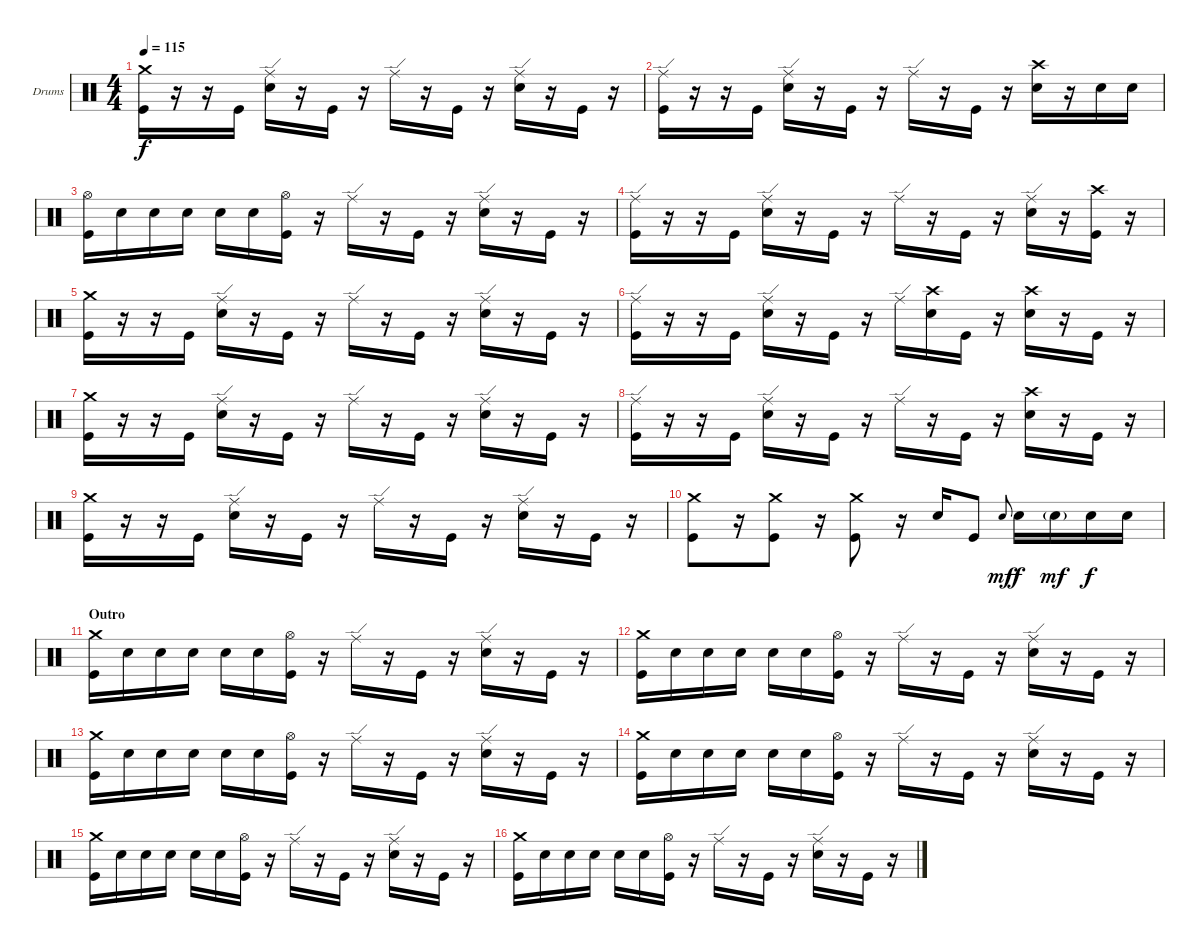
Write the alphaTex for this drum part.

\defaultSystemsLayout 4
\bracketExtendMode nobrackets
\firstSystemTrackNameOrientation horizontal
\otherSystemsTrackNameOrientation horizontal
\track ("Dave Krusen" "Drums") {instrument percussion}
\staff {score}
\articulation defaults
\ts (4 4)
\tempo 115
\clef neutral
\ks c
("Crash medium (hit)" "Kick (hit)").16{dy f} r.16 r.16 "Kick (hit)".16 ("Ride (edge)" "Snare (hit) 2").16 r.16 "Kick (hit)".16 r.16 "Ride (edge)".16 r.16 "Kick (hit)".16 r.16 ("Ride (edge)" "Snare (hit) 2").16 r.16 "Kick (hit)".16 r.16 |
("Ride (edge)" "Kick (hit)").16 r.16 r.16 "Kick (hit)".16 ("Ride (edge)" "Snare (hit) 2").16 r.16 "Kick (hit)".16 r.16 "Ride (edge)".16 r.16 "Kick (hit)".16 r.16 ("Crash high (hit)" "Snare (hit) 2").16 r.16 "Snare (hit) 2".16 "Snare (hit) 2".16 |
("Hi-Hat (open)" "Kick (hit)").16 "Snare (hit) 2".16 "Snare (hit) 2".16 "Snare (hit) 2".16 "Snare (hit) 2".16 "Snare (hit) 2".16 ("Hi-Hat (open)" "Kick (hit)").16 r.16 "Ride (edge)".16 r.16 "Kick (hit)".16 r.16 ("Ride (edge)" "Snare (hit) 2").16 r.16 "Kick (hit)".16 r.16 |
("Ride (edge)" "Kick (hit)").16 r.16 r.16 "Kick (hit)".16 ("Ride (edge)" "Snare (hit) 2").16 r.16 "Kick (hit)".16 r.16 "Ride (edge)".16 r.16 "Kick (hit)".16 r.16 ("Ride (edge)" "Snare (hit) 2").16 r.16 ("Crash high (hit)" "Kick (hit)").16 r.16 |
("Crash medium (hit)" "Kick (hit)").16 r.16 r.16 "Kick (hit)".16 ("Ride (edge)" "Snare (hit) 2").16 r.16 "Kick (hit)".16 r.16 "Ride (edge)".16 r.16 "Kick (hit)".16 r.16 ("Ride (edge)" "Snare (hit) 2").16 r.16 "Kick (hit)".16 r.16 |
("Ride (edge)" "Kick (hit)").16 r.16 r.16 "Kick (hit)".16 ("Ride (edge)" "Snare (hit) 2").16 r.16 "Kick (hit)".16 r.16 "Ride (edge)".16 ("Crash high (hit)" "Snare (hit) 2").16 "Kick (hit)".16 r.16 ("Crash high (hit)" "Snare (hit) 2").16 r.16 "Kick (hit)".16 r.16 |
("Crash medium (hit)" "Kick (hit)").16 r.16 r.16 "Kick (hit)".16 ("Ride (edge)" "Snare (hit) 2").16 r.16 "Kick (hit)".16 r.16 "Ride (edge)".16 r.16 "Kick (hit)".16 r.16 ("Ride (edge)" "Snare (hit) 2").16 r.16 "Kick (hit)".16 r.16 |
("Ride (edge)" "Kick (hit)").16 r.16 r.16 "Kick (hit)".16 ("Ride (edge)" "Snare (hit) 2").16 r.16 "Kick (hit)".16 r.16 "Ride (edge)".16 r.16 "Kick (hit)".16 r.16 ("Crash high (hit)" "Snare (hit) 2").16 r.16 "Kick (hit)".16 r.16 |
("Crash medium (hit)" "Kick (hit)").16 r.16 r.16 "Kick (hit)".16 ("Ride (edge)" "Snare (hit) 2").16 r.16 "Kick (hit)".16 r.16 "Ride (edge)".16 r.16 "Kick (hit)".16 r.16 ("Ride (edge)" "Snare (hit) 2").16 r.16 "Kick (hit)".16 r.16 |
("Crash medium (hit)" "Kick (hit)").8 r.16 ("Crash medium (hit)" "Kick (hit)").8 r.16 ("Crash medium (hit)" "Kick (hit)").8 r.16 "Snare (hit) 2".16 "Kick (hit)".8 "Snare (hit) 2".8{gr onbeat dy mf} "Snare (hit) 2".16{dy f} "Snare (hit) 2"{g}.16{dy mf} "Snare (hit) 2".16{dy f} "Snare (hit) 2".16 |
\section ("" "Outro")
("Crash medium (hit)" "Kick (hit)").16 "Snare (hit) 2".16 "Snare (hit) 2".16 "Snare (hit) 2".16 "Snare (hit) 2".16 "Snare (hit) 2".16 ("Hi-Hat (open)" "Kick (hit)").16 r.16 "Ride (edge)".16 r.16 "Kick (hit)".16 r.16 ("Ride (edge)" "Snare (hit) 2").16 r.16 "Kick (hit)".16 r.16 |
("Crash medium (hit)" "Kick (hit)").16 "Snare (hit) 2".16 "Snare (hit) 2".16 "Snare (hit) 2".16 "Snare (hit) 2".16 "Snare (hit) 2".16 ("Hi-Hat (open)" "Kick (hit)").16 r.16 "Ride (edge)".16 r.16 "Kick (hit)".16 r.16 ("Ride (edge)" "Snare (hit) 2").16 r.16 "Kick (hit)".16 r.16 |
("Crash medium (hit)" "Kick (hit)").16 "Snare (hit) 2".16 "Snare (hit) 2".16 "Snare (hit) 2".16 "Snare (hit) 2".16 "Snare (hit) 2".16 ("Hi-Hat (open)" "Kick (hit)").16 r.16 "Ride (edge)".16 r.16 "Kick (hit)".16 r.16 ("Ride (edge)" "Snare (hit) 2").16 r.16 "Kick (hit)".16 r.16 |
("Crash medium (hit)" "Kick (hit)").16 "Snare (hit) 2".16 "Snare (hit) 2".16 "Snare (hit) 2".16 "Snare (hit) 2".16 "Snare (hit) 2".16 ("Hi-Hat (open)" "Kick (hit)").16 r.16 "Ride (edge)".16 r.16 "Kick (hit)".16 r.16 ("Ride (edge)" "Snare (hit) 2").16 r.16 "Kick (hit)".16 r.16 |
("Crash medium (hit)" "Kick (hit)").16 "Snare (hit) 2".16 "Snare (hit) 2".16 "Snare (hit) 2".16 "Snare (hit) 2".16 "Snare (hit) 2".16 ("Hi-Hat (open)" "Kick (hit)").16 r.16 "Ride (edge)".16 r.16 "Kick (hit)".16 r.16 ("Ride (edge)" "Snare (hit) 2").16 r.16 "Kick (hit)".16 r.16 |
("Crash medium (hit)" "Kick (hit)").16 "Snare (hit) 2".16 "Snare (hit) 2".16 "Snare (hit) 2".16 "Snare (hit) 2".16 "Snare (hit) 2".16 ("Hi-Hat (open)" "Kick (hit)").16 r.16 "Ride (edge)".16 r.16 "Kick (hit)".16 r.16 ("Ride (edge)" "Snare (hit) 2").16 r.16 "Kick (hit)".16 r.16
